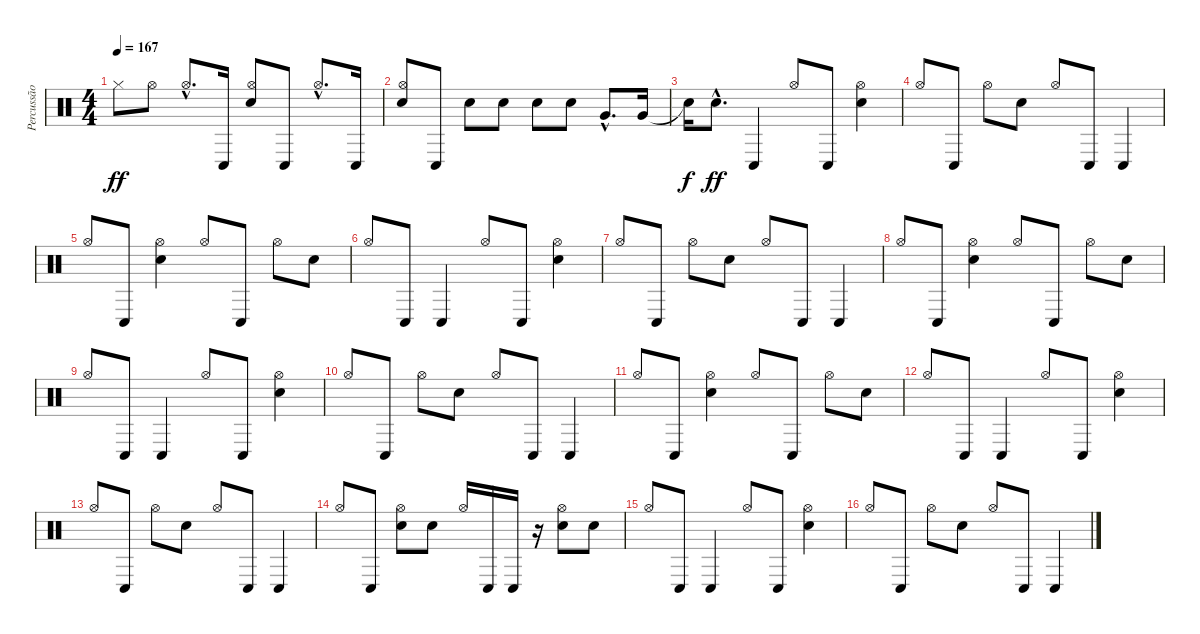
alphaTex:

\track ("Percussão" "Percussão") {instrument percussion}
\staff {score}
\articulation defaults
\ts (4 4)
\tempo 167
\clef neutral
\ks c "Hi-Hat (closed)".8{dy ff} "Hi-Hat (open)".8 "Hi-Hat (open)"{hac}.8{d} "Conga low (hit)".16
("Electric Snare (hit)" "Hi-Hat (open)").8 "Conga low (hit)".8 "Hi-Hat (open)"{hac}.8{d} "Conga low (hit)".16 |
("Electric Snare (hit)" "Hi-Hat (open)").8 "Conga low (hit)".8 "Electric Snare (hit)".8 "Electric Snare (hit)".8 "Electric Snare (hit)".8 "Electric Snare (hit)".8 "Very Low Tom (hit)"{hac}.8{d} "Very Low Tom (hit)".16 |
"Snare (hit)"{t}.16{dy f} "Electric Snare (hit)"{hac}.8{d dy ff} "Conga low (hit)".4 "Hi-Hat (open)".8 "Conga low (hit)".8 ("Electric Snare (hit)" "Hi-Hat (open)").4 |
"Hi-Hat (open)".8 "Conga low (hit)".8 "Hi-Hat (open)".8 "Electric Snare (hit)".8 "Hi-Hat (open)".8 "Conga low (hit)".8 "Conga low (hit)".4 |
"Hi-Hat (open)".8 "Conga low (hit)".8 ("Electric Snare (hit)" "Hi-Hat (open)").4 "Hi-Hat (open)".8 "Conga low (hit)".8 "Hi-Hat (open)".8 "Electric Snare (hit)".8 |
"Hi-Hat (open)".8 "Conga low (hit)".8 "Conga low (hit)".4 "Hi-Hat (open)".8 "Conga low (hit)".8 ("Electric Snare (hit)" "Hi-Hat (open)").4 |
"Hi-Hat (open)".8 "Conga low (hit)".8 "Hi-Hat (open)".8 "Electric Snare (hit)".8 "Hi-Hat (open)".8 "Conga low (hit)".8 "Conga low (hit)".4 |
"Hi-Hat (open)".8 "Conga low (hit)".8 ("Electric Snare (hit)" "Hi-Hat (open)").4 "Hi-Hat (open)".8 "Conga low (hit)".8 "Hi-Hat (open)".8 "Electric Snare (hit)".8 |
"Hi-Hat (open)".8 "Conga low (hit)".8 "Conga low (hit)".4 "Hi-Hat (open)".8 "Conga low (hit)".8 ("Electric Snare (hit)" "Hi-Hat (open)").4 |
"Hi-Hat (open)".8 "Conga low (hit)".8 "Hi-Hat (open)".8 "Electric Snare (hit)".8 "Hi-Hat (open)".8 "Conga low (hit)".8 "Conga low (hit)".4 |
"Hi-Hat (open)".8 "Conga low (hit)".8 ("Electric Snare (hit)" "Hi-Hat (open)").4 "Hi-Hat (open)".8 "Conga low (hit)".8 "Hi-Hat (open)".8 "Electric Snare (hit)".8 |
"Hi-Hat (open)".8 "Conga low (hit)".8 "Conga low (hit)".4 "Hi-Hat (open)".8 "Conga low (hit)".8 ("Electric Snare (hit)" "Hi-Hat (open)").4 |
"Hi-Hat (open)".8 "Conga low (hit)".8 "Hi-Hat (open)".8 "Electric Snare (hit)".8 "Hi-Hat (open)".8 "Conga low (hit)".8 "Conga low (hit)".4 |
"Hi-Hat (open)".8 "Conga low (hit)".8 ("Electric Snare (hit)" "Hi-Hat (open)").8 "Electric Snare (hit)".8 "Hi-Hat (open)".16 "Conga low (hit)".16 "Conga low (hit)".16 r.16 ("Electric Snare (hit)" "Hi-Hat (open)").8 "Electric Snare (hit)".8 |
"Hi-Hat (open)".8 "Conga low (hit)".8 "Conga low (hit)".4 "Hi-Hat (open)".8 "Conga low (hit)".8 ("Electric Snare (hit)" "Hi-Hat (open)").4 |
"Hi-Hat (open)".8 "Conga low (hit)".8 "Hi-Hat (open)".8 "Electric Snare (hit)".8 "Hi-Hat (open)".8 "Conga low (hit)".8 "Conga low (hit)".4
